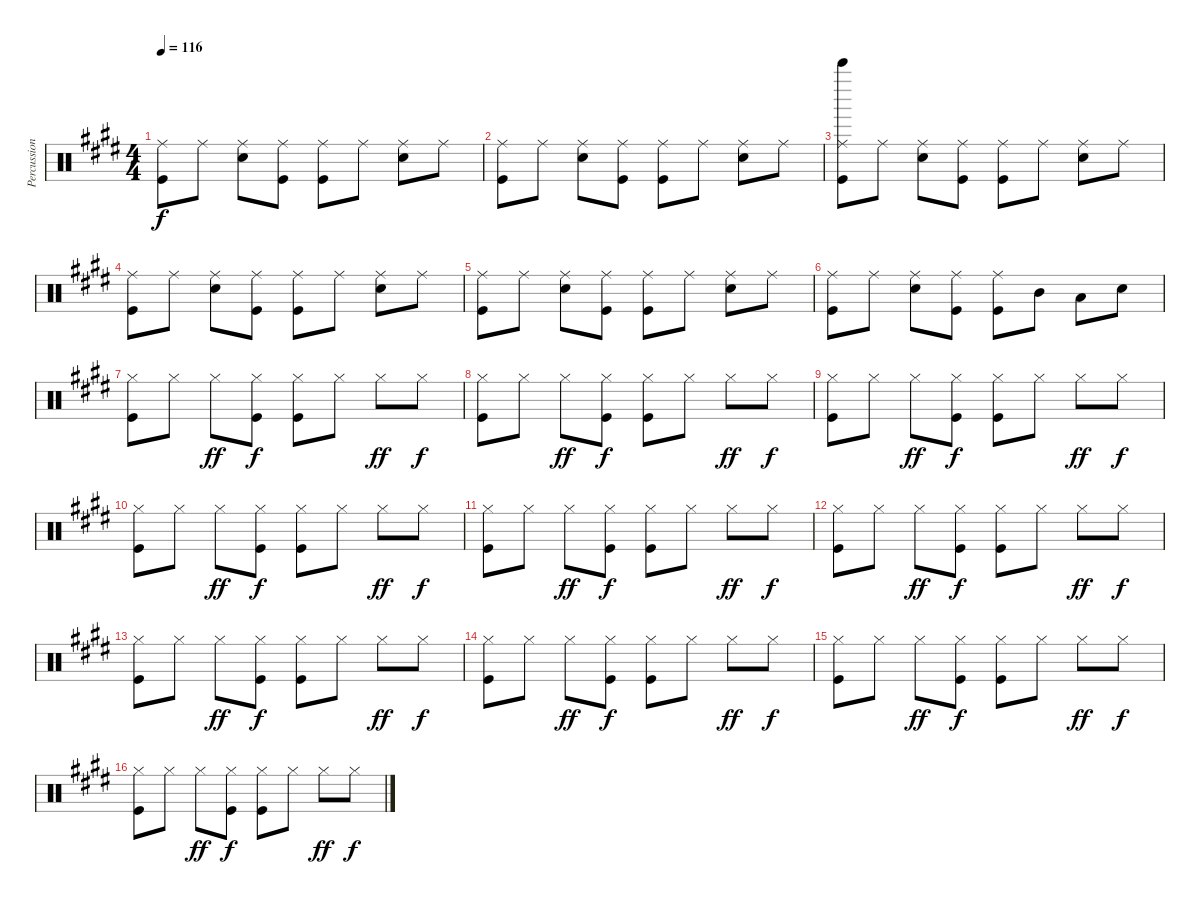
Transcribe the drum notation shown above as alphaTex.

\track ("Percussion" "Percussion") {instrument percussion}
\staff {score}
\articulation defaults
\ts (4 4)
\tempo 116
\clef neutral
\ks e
("Ride (middle)" "Kick (hit)").8{dy f} "Ride (middle)".8 ("Ride (middle)" "Snare (hit) 2").8 ("Ride (middle)" "Kick (hit)").8 ("Ride (middle)" "Kick (hit)").8 "Ride (middle)".8 ("Ride (middle)" "Snare (hit) 2").8 "Ride (middle)".8 |
("Ride (middle)" "Kick (hit)").8 "Ride (middle)".8 ("Ride (middle)" "Snare (hit) 2").8 ("Ride (middle)" "Kick (hit)").8 ("Ride (middle)" "Kick (hit)").8 "Ride (middle)".8 ("Ride (middle)" "Snare (hit) 2").8 "Ride (middle)".8 |
("Ride (middle)" "Bell Tree (hit)" "Kick (hit)").8 "Ride (middle)".8 ("Ride (middle)" "Snare (hit) 2").8 ("Ride (middle)" "Kick (hit)").8 ("Ride (middle)" "Kick (hit)").8 "Ride (middle)".8 ("Ride (middle)" "Snare (hit) 2").8 "Ride (middle)".8 |
("Ride (middle)" "Kick (hit)").8 "Ride (middle)".8 ("Ride (middle)" "Snare (hit) 2").8 ("Ride (middle)" "Kick (hit)").8 ("Ride (middle)" "Kick (hit)").8 "Ride (middle)".8 ("Ride (middle)" "Snare (hit) 2").8 "Ride (middle)".8 |
("Ride (middle)" "Kick (hit)").8 "Ride (middle)".8 ("Ride (middle)" "Snare (hit) 2").8 ("Ride (middle)" "Kick (hit)").8 ("Ride (middle)" "Kick (hit)").8 "Ride (middle)".8 ("Ride (middle)" "Snare (hit) 2").8 "Ride (middle)".8 |
("Ride (middle)" "Kick (hit)").8 "Ride (middle)".8 ("Ride (middle)" "Snare (hit) 2").8 ("Ride (middle)" "Kick (hit)").8 ("Ride (middle)" "Kick (hit)").8 "Mid Tom (hit)".8 "Low Tom (hit)".8 "Snare (hit) 2".8 |
("Hi-Hat (closed)" "Kick (hit)").8 "Hi-Hat (closed)".8 "Hi-Hat (closed)".8{dy ff} ("Hi-Hat (closed)" "Kick (hit)").8{dy f} ("Hi-Hat (closed)" "Kick (hit)").8 "Hi-Hat (closed)".8 "Hi-Hat (closed)".8{dy ff} "Hi-Hat (closed)".8{dy f} |
("Hi-Hat (closed)" "Kick (hit)").8 "Hi-Hat (closed)".8 "Hi-Hat (closed)".8{dy ff} ("Hi-Hat (closed)" "Kick (hit)").8{dy f} ("Hi-Hat (closed)" "Kick (hit)").8 "Hi-Hat (closed)".8 "Hi-Hat (closed)".8{dy ff} "Hi-Hat (closed)".8{dy f} |
("Hi-Hat (closed)" "Kick (hit)").8 "Hi-Hat (closed)".8 "Hi-Hat (closed)".8{dy ff} ("Hi-Hat (closed)" "Kick (hit)").8{dy f} ("Hi-Hat (closed)" "Kick (hit)").8 "Hi-Hat (closed)".8 "Hi-Hat (closed)".8{dy ff} "Hi-Hat (closed)".8{dy f} |
("Hi-Hat (closed)" "Kick (hit)").8 "Hi-Hat (closed)".8 "Hi-Hat (closed)".8{dy ff} ("Hi-Hat (closed)" "Kick (hit)").8{dy f} ("Hi-Hat (closed)" "Kick (hit)").8 "Hi-Hat (closed)".8 "Hi-Hat (closed)".8{dy ff} "Hi-Hat (closed)".8{dy f} |
("Hi-Hat (closed)" "Kick (hit)").8 "Hi-Hat (closed)".8 "Hi-Hat (closed)".8{dy ff} ("Hi-Hat (closed)" "Kick (hit)").8{dy f} ("Hi-Hat (closed)" "Kick (hit)").8 "Hi-Hat (closed)".8 "Hi-Hat (closed)".8{dy ff} "Hi-Hat (closed)".8{dy f} |
("Hi-Hat (closed)" "Kick (hit)").8 "Hi-Hat (closed)".8 "Hi-Hat (closed)".8{dy ff} ("Hi-Hat (closed)" "Kick (hit)").8{dy f} ("Hi-Hat (closed)" "Kick (hit)").8 "Hi-Hat (closed)".8 "Hi-Hat (closed)".8{dy ff} "Hi-Hat (closed)".8{dy f} |
("Hi-Hat (closed)" "Kick (hit)").8 "Hi-Hat (closed)".8 "Hi-Hat (closed)".8{dy ff} ("Hi-Hat (closed)" "Kick (hit)").8{dy f} ("Hi-Hat (closed)" "Kick (hit)").8 "Hi-Hat (closed)".8 "Hi-Hat (closed)".8{dy ff} "Hi-Hat (closed)".8{dy f} |
("Hi-Hat (closed)" "Kick (hit)").8 "Hi-Hat (closed)".8 "Hi-Hat (closed)".8{dy ff} ("Hi-Hat (closed)" "Kick (hit)").8{dy f} ("Hi-Hat (closed)" "Kick (hit)").8 "Hi-Hat (closed)".8 "Hi-Hat (closed)".8{dy ff} "Hi-Hat (closed)".8{dy f} |
("Hi-Hat (closed)" "Kick (hit)").8 "Hi-Hat (closed)".8 "Hi-Hat (closed)".8{dy ff} ("Hi-Hat (closed)" "Kick (hit)").8{dy f} ("Hi-Hat (closed)" "Kick (hit)").8 "Hi-Hat (closed)".8 "Hi-Hat (closed)".8{dy ff} "Hi-Hat (closed)".8{dy f} |
("Hi-Hat (closed)" "Kick (hit)").8 "Hi-Hat (closed)".8 "Hi-Hat (closed)".8{dy ff} ("Hi-Hat (closed)" "Kick (hit)").8{dy f} ("Hi-Hat (closed)" "Kick (hit)").8 "Hi-Hat (closed)".8 "Hi-Hat (closed)".8{dy ff} "Hi-Hat (closed)".8{dy f}
